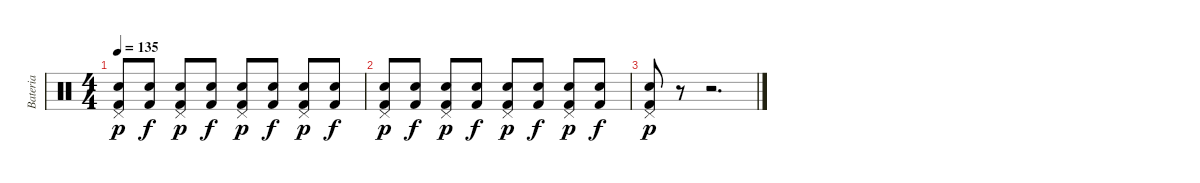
\track ("Bateria" "Bateria") {instrument percussion}
\staff {score}
\articulation defaults
\ts (4 4)
\tempo 135
\clef neutral
\ks c
("Electric Snare (hit)" "Kick (hit) 2" "Pedal Hi-Hat (hit)").8{dy p} ("Electric Snare (hit)" "Kick (hit) 2").8{dy f} ("Electric Snare (hit)" "Kick (hit) 2" "Pedal Hi-Hat (hit)").8{dy p} ("Electric Snare (hit)" "Kick (hit) 2").8{dy f} ("Electric Snare (hit)" "Kick (hit) 2" "Pedal Hi-Hat (hit)").8{dy p} ("Electric Snare (hit)" "Kick (hit) 2").8{dy f} ("Electric Snare (hit)" "Kick (hit) 2" "Pedal Hi-Hat (hit)").8{dy p} ("Electric Snare (hit)" "Kick (hit) 2").8{dy f} |
("Electric Snare (hit)" "Kick (hit) 2" "Pedal Hi-Hat (hit)").8{dy p} ("Electric Snare (hit)" "Kick (hit) 2").8{dy f} ("Electric Snare (hit)" "Kick (hit) 2" "Pedal Hi-Hat (hit)").8{dy p} ("Electric Snare (hit)" "Kick (hit) 2").8{dy f} ("Electric Snare (hit)" "Kick (hit) 2" "Pedal Hi-Hat (hit)").8{dy p} ("Electric Snare (hit)" "Kick (hit) 2").8{dy f} ("Electric Snare (hit)" "Kick (hit) 2" "Pedal Hi-Hat (hit)").8{dy p} ("Electric Snare (hit)" "Kick (hit) 2").8{dy f} |
("Electric Snare (hit)" "Kick (hit) 2" "Pedal Hi-Hat (hit)").8{dy p} r.8 r.2{d}
